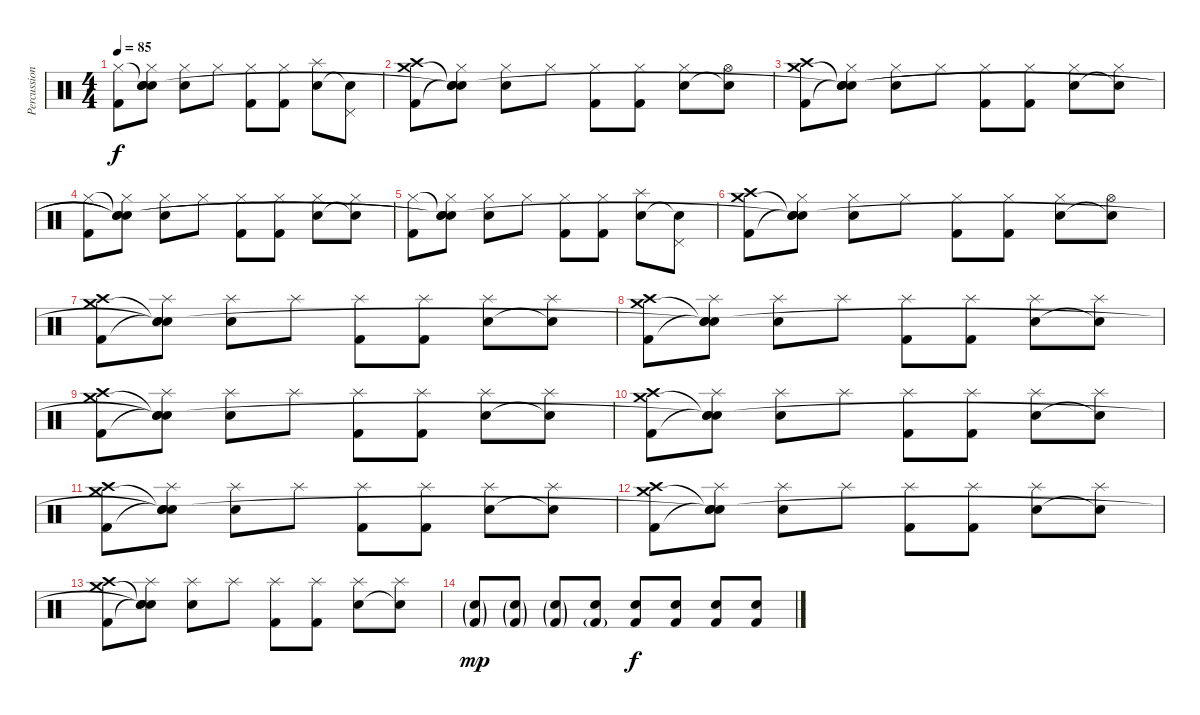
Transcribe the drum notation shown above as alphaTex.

\track ("Percussion" "Percussion") {instrument percussion}
\staff {score}
\articulation defaults
\ts (4 4)
\tempo 85
\clef neutral
\ks c
("Hi-Hat (closed)" "Kick (hit) 2").8{dy f} ("Snare (hit)"{t} "Hi-Hat (closed)" "Snare (hit) 2"{t} "Snare (hit)"{t}).8 ("Hi-Hat (closed)" "Snare (hit) 2").8 "Hi-Hat (closed)".8 ("Hi-Hat (closed)" "Kick (hit) 2").8 ("Hi-Hat (closed)" "Kick (hit) 2").8 ("Splash (hit)" "Snare (hit) 2").8 ("Pedal Hi-Hat (hit)" "Snare (hit)"{t}).8 |
("Crash medium (hit)" "Crash high (hit)" "Kick (hit) 2").8 ("Snare (hit)"{t} "Hi-Hat (closed)" "Snare (hit) 2"{t} "Snare (hit)"{t}).8 ("Hi-Hat (closed)" "Snare (hit) 2").8 "Hi-Hat (closed)".8 ("Hi-Hat (closed)" "Kick (hit) 2").8 ("Hi-Hat (closed)" "Kick (hit) 2").8 ("Hi-Hat (closed)" "Snare (hit) 2").8 ("Hi-Hat (open)" "Snare (hit)"{t}).8 |
("Crash medium (hit)" "Crash high (hit)" "Kick (hit) 2").8 ("Snare (hit)"{t} "Hi-Hat (closed)" "Snare (hit) 2"{t} "Snare (hit)"{t}).8 ("Hi-Hat (closed)" "Snare (hit) 2").8 "Hi-Hat (closed)".8 ("Hi-Hat (closed)" "Kick (hit) 2").8 ("Hi-Hat (closed)" "Kick (hit) 2").8 ("Hi-Hat (closed)" "Snare (hit) 2").8 ("Hi-Hat (closed)" "Snare (hit)"{t}).8 |
("Hi-Hat (closed)" "Kick (hit) 2").8 ("Snare (hit)"{t} "Hi-Hat (closed)" "Snare (hit) 2"{t} "Snare (hit)"{t}).8 ("Hi-Hat (closed)" "Snare (hit) 2").8 "Hi-Hat (closed)".8 ("Hi-Hat (closed)" "Kick (hit) 2").8 ("Hi-Hat (closed)" "Kick (hit) 2").8 ("Hi-Hat (closed)" "Snare (hit) 2").8 ("Hi-Hat (closed)" "Snare (hit)"{t}).8 |
("Hi-Hat (closed)" "Kick (hit) 2").8 ("Snare (hit)"{t} "Hi-Hat (closed)" "Snare (hit) 2"{t} "Snare (hit)"{t}).8 ("Hi-Hat (closed)" "Snare (hit) 2").8 "Hi-Hat (closed)".8 ("Hi-Hat (closed)" "Kick (hit) 2").8 ("Hi-Hat (closed)" "Kick (hit) 2").8 ("Splash (hit)" "Snare (hit) 2").8 ("Pedal Hi-Hat (hit)" "Snare (hit)"{t}).8 |
("Crash medium (hit)" "Crash high (hit)" "Kick (hit) 2").8 ("Snare (hit)"{t} "Hi-Hat (closed)" "Snare (hit) 2"{t} "Snare (hit)"{t}).8 ("Hi-Hat (closed)" "Snare (hit) 2").8 "Hi-Hat (closed)".8 ("Hi-Hat (closed)" "Kick (hit) 2").8 ("Hi-Hat (closed)" "Kick (hit) 2").8 ("Hi-Hat (closed)" "Snare (hit) 2").8 ("Hi-Hat (open)" "Snare (hit)"{t}).8 |
("Crash medium (hit)" "Crash high (hit)" "Kick (hit) 2").8 ("Snare (hit)"{t} "Splash (hit)" "Snare (hit) 2"{t} "Snare (hit)"{t}).8 ("Splash (hit)" "Snare (hit) 2").8 "Splash (hit)".8 ("Splash (hit)" "Kick (hit) 2").8 ("Splash (hit)" "Kick (hit) 2").8 ("Splash (hit)" "Snare (hit) 2").8 ("Splash (hit)" "Snare (hit)"{t}).8 |
("Crash medium (hit)" "Crash high (hit)" "Kick (hit) 2").8 ("Snare (hit)"{t} "Splash (hit)" "Snare (hit) 2"{t} "Snare (hit)"{t}).8 ("Splash (hit)" "Snare (hit) 2").8 "Splash (hit)".8 ("Splash (hit)" "Kick (hit) 2").8 ("Splash (hit)" "Kick (hit) 2").8 ("Splash (hit)" "Snare (hit) 2").8 ("Splash (hit)" "Snare (hit)"{t}).8 |
("Crash medium (hit)" "Crash high (hit)" "Kick (hit) 2").8 ("Snare (hit)"{t} "Splash (hit)" "Snare (hit) 2"{t} "Snare (hit)"{t}).8 ("Splash (hit)" "Snare (hit) 2").8 "Splash (hit)".8 ("Splash (hit)" "Kick (hit) 2").8 ("Splash (hit)" "Kick (hit) 2").8 ("Splash (hit)" "Snare (hit) 2").8 ("Splash (hit)" "Snare (hit)"{t}).8 |
("Crash medium (hit)" "Crash high (hit)" "Kick (hit) 2").8 ("Snare (hit)"{t} "Splash (hit)" "Snare (hit) 2"{t} "Snare (hit)"{t}).8 ("Splash (hit)" "Snare (hit) 2").8 "Splash (hit)".8 ("Splash (hit)" "Kick (hit) 2").8 ("Splash (hit)" "Kick (hit) 2").8 ("Splash (hit)" "Snare (hit) 2").8 ("Splash (hit)" "Snare (hit)"{t}).8 |
("Crash medium (hit)" "Crash high (hit)" "Kick (hit) 2").8 ("Snare (hit)"{t} "Splash (hit)" "Snare (hit) 2"{t} "Snare (hit)"{t}).8 ("Splash (hit)" "Snare (hit) 2").8 "Splash (hit)".8 ("Splash (hit)" "Kick (hit) 2").8 ("Splash (hit)" "Kick (hit) 2").8 ("Splash (hit)" "Snare (hit) 2").8 ("Splash (hit)" "Snare (hit)"{t}).8 |
("Crash medium (hit)" "Crash high (hit)" "Kick (hit) 2").8 ("Snare (hit)"{t} "Splash (hit)" "Snare (hit) 2"{t} "Snare (hit)"{t}).8 ("Splash (hit)" "Snare (hit) 2").8 "Splash (hit)".8 ("Splash (hit)" "Kick (hit) 2").8 ("Splash (hit)" "Kick (hit) 2").8 ("Splash (hit)" "Snare (hit) 2").8 ("Splash (hit)" "Snare (hit)"{t}).8 |
("Crash medium (hit)" "Crash high (hit)" "Kick (hit) 2").8 ("Snare (hit)"{t} "Splash (hit)" "Snare (hit) 2"{t} "Snare (hit)"{t}).8 ("Splash (hit)" "Snare (hit) 2").8 "Splash (hit)".8 ("Splash (hit)" "Kick (hit) 2").8 ("Splash (hit)" "Kick (hit) 2").8 ("Splash (hit)" "Snare (hit) 2").8 ("Splash (hit)" "Snare (hit)"{t}).8 |
("Snare (hit) 2"{g} "Kick (hit) 2"{g}).8{dy mp} ("Snare (hit) 2"{g} "Kick (hit) 2"{g}).8 ("Snare (hit) 2"{g} "Kick (hit) 2"{g}).8 ("Snare (hit) 2" "Kick (hit) 2"{g}).8 ("Snare (hit) 2" "Kick (hit) 2").8{dy f} ("Snare (hit) 2" "Kick (hit) 2").8 ("Snare (hit) 2" "Kick (hit) 2").8 ("Snare (hit) 2" "Kick (hit) 2").8
